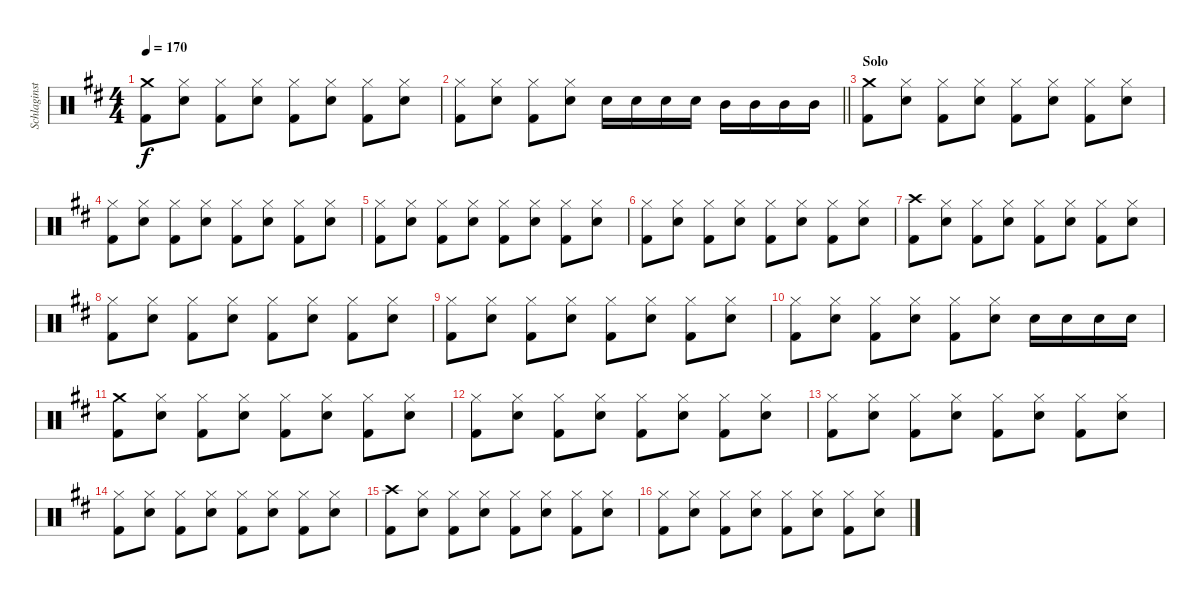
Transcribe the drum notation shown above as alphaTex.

\track ("Schlaginstrumente - Auswahl" "Schlaginst") {instrument percussion}
\staff {score}
\articulation defaults
\ts (4 4)
\tempo 170
\clef neutral
\ks d
("Crash medium (hit)" "Kick (hit) 2").8{dy f} ("Hi-Hat (closed)" "Snare (hit) 2").8 ("Hi-Hat (closed)" "Kick (hit) 2").8 ("Hi-Hat (closed)" "Snare (hit) 2").8 ("Hi-Hat (closed)" "Kick (hit) 2").8 ("Hi-Hat (closed)" "Snare (hit) 2").8 ("Hi-Hat (closed)" "Kick (hit) 2").8 ("Hi-Hat (closed)" "Snare (hit) 2").8 |
\barLineRight lightlight
("Hi-Hat (closed)" "Kick (hit) 2").8 ("Hi-Hat (closed)" "Snare (hit) 2").8 ("Hi-Hat (closed)" "Kick (hit) 2").8 ("Hi-Hat (closed)" "Snare (hit) 2").8 "Snare (hit) 2".16 "Snare (hit) 2".16 "Snare (hit) 2".16 "Snare (hit) 2".16 "Mid Tom (hit)".16 "Mid Tom (hit)".16 "Mid Tom (hit)".16 "Mid Tom (hit)".16 |
\section ("" "Solo")
("Crash medium (hit)" "Kick (hit) 2").8 ("Hi-Hat (closed)" "Snare (hit) 2").8 ("Hi-Hat (closed)" "Kick (hit) 2").8 ("Hi-Hat (closed)" "Snare (hit) 2").8 ("Hi-Hat (closed)" "Kick (hit) 2").8 ("Hi-Hat (closed)" "Snare (hit) 2").8 ("Hi-Hat (closed)" "Kick (hit) 2").8 ("Hi-Hat (closed)" "Snare (hit) 2").8 |
("Hi-Hat (closed)" "Kick (hit) 2").8 ("Hi-Hat (closed)" "Snare (hit) 2").8 ("Hi-Hat (closed)" "Kick (hit) 2").8 ("Hi-Hat (closed)" "Snare (hit) 2").8 ("Hi-Hat (closed)" "Kick (hit) 2").8 ("Hi-Hat (closed)" "Snare (hit) 2").8 ("Hi-Hat (closed)" "Kick (hit) 2").8 ("Hi-Hat (closed)" "Snare (hit) 2").8 |
("Hi-Hat (closed)" "Kick (hit) 2").8 ("Hi-Hat (closed)" "Snare (hit) 2").8 ("Hi-Hat (closed)" "Kick (hit) 2").8 ("Hi-Hat (closed)" "Snare (hit) 2").8 ("Hi-Hat (closed)" "Kick (hit) 2").8 ("Hi-Hat (closed)" "Snare (hit) 2").8 ("Hi-Hat (closed)" "Kick (hit) 2").8 ("Hi-Hat (closed)" "Snare (hit) 2").8 |
("Hi-Hat (closed)" "Kick (hit) 2").8 ("Hi-Hat (closed)" "Snare (hit) 2").8 ("Hi-Hat (closed)" "Kick (hit) 2").8 ("Hi-Hat (closed)" "Snare (hit) 2").8 ("Hi-Hat (closed)" "Kick (hit) 2").8 ("Hi-Hat (closed)" "Snare (hit) 2").8 ("Hi-Hat (closed)" "Kick (hit) 2").8 ("Hi-Hat (closed)" "Snare (hit) 2").8 |
("Crash high (hit)" "Kick (hit) 2").8 ("Hi-Hat (closed)" "Snare (hit) 2").8 ("Hi-Hat (closed)" "Kick (hit) 2").8 ("Hi-Hat (closed)" "Snare (hit) 2").8 ("Hi-Hat (closed)" "Kick (hit) 2").8 ("Hi-Hat (closed)" "Snare (hit) 2").8 ("Hi-Hat (closed)" "Kick (hit) 2").8 ("Hi-Hat (closed)" "Snare (hit) 2").8 |
("Hi-Hat (closed)" "Kick (hit) 2").8 ("Hi-Hat (closed)" "Snare (hit) 2").8 ("Hi-Hat (closed)" "Kick (hit) 2").8 ("Hi-Hat (closed)" "Snare (hit) 2").8 ("Hi-Hat (closed)" "Kick (hit) 2").8 ("Hi-Hat (closed)" "Snare (hit) 2").8 ("Hi-Hat (closed)" "Kick (hit) 2").8 ("Hi-Hat (closed)" "Snare (hit) 2").8 |
("Hi-Hat (closed)" "Kick (hit) 2").8 ("Hi-Hat (closed)" "Snare (hit) 2").8 ("Hi-Hat (closed)" "Kick (hit) 2").8 ("Hi-Hat (closed)" "Snare (hit) 2").8 ("Hi-Hat (closed)" "Kick (hit) 2").8 ("Hi-Hat (closed)" "Snare (hit) 2").8 ("Hi-Hat (closed)" "Kick (hit) 2").8 ("Hi-Hat (closed)" "Snare (hit) 2").8 |
("Hi-Hat (closed)" "Kick (hit) 2").8 ("Hi-Hat (closed)" "Snare (hit) 2").8 ("Hi-Hat (closed)" "Kick (hit) 2").8 ("Hi-Hat (closed)" "Snare (hit) 2").8 ("Hi-Hat (closed)" "Kick (hit) 2").8 ("Hi-Hat (closed)" "Snare (hit) 2").8 "Snare (hit) 2".16 "Snare (hit) 2".16 "Snare (hit) 2".16 "Snare (hit) 2".16 |
("Crash medium (hit)" "Kick (hit) 2").8 ("Hi-Hat (closed)" "Snare (hit) 2").8 ("Hi-Hat (closed)" "Kick (hit) 2").8 ("Hi-Hat (closed)" "Snare (hit) 2").8 ("Hi-Hat (closed)" "Kick (hit) 2").8 ("Hi-Hat (closed)" "Snare (hit) 2").8 ("Hi-Hat (closed)" "Kick (hit) 2").8 ("Hi-Hat (closed)" "Snare (hit) 2").8 |
("Hi-Hat (closed)" "Kick (hit) 2").8 ("Hi-Hat (closed)" "Snare (hit) 2").8 ("Hi-Hat (closed)" "Kick (hit) 2").8 ("Hi-Hat (closed)" "Snare (hit) 2").8 ("Hi-Hat (closed)" "Kick (hit) 2").8 ("Hi-Hat (closed)" "Snare (hit) 2").8 ("Hi-Hat (closed)" "Kick (hit) 2").8 ("Hi-Hat (closed)" "Snare (hit) 2").8 |
("Hi-Hat (closed)" "Kick (hit) 2").8 ("Hi-Hat (closed)" "Snare (hit) 2").8 ("Hi-Hat (closed)" "Kick (hit) 2").8 ("Hi-Hat (closed)" "Snare (hit) 2").8 ("Hi-Hat (closed)" "Kick (hit) 2").8 ("Hi-Hat (closed)" "Snare (hit) 2").8 ("Hi-Hat (closed)" "Kick (hit) 2").8 ("Hi-Hat (closed)" "Snare (hit) 2").8 |
("Hi-Hat (closed)" "Kick (hit) 2").8 ("Hi-Hat (closed)" "Snare (hit) 2").8 ("Hi-Hat (closed)" "Kick (hit) 2").8 ("Hi-Hat (closed)" "Snare (hit) 2").8 ("Hi-Hat (closed)" "Kick (hit) 2").8 ("Hi-Hat (closed)" "Snare (hit) 2").8 ("Hi-Hat (closed)" "Kick (hit) 2").8 ("Hi-Hat (closed)" "Snare (hit) 2").8 |
("Crash high (hit)" "Kick (hit) 2").8 ("Hi-Hat (closed)" "Snare (hit) 2").8 ("Hi-Hat (closed)" "Kick (hit) 2").8 ("Hi-Hat (closed)" "Snare (hit) 2").8 ("Hi-Hat (closed)" "Kick (hit) 2").8 ("Hi-Hat (closed)" "Snare (hit) 2").8 ("Hi-Hat (closed)" "Kick (hit) 2").8 ("Hi-Hat (closed)" "Snare (hit) 2").8 |
("Hi-Hat (closed)" "Kick (hit) 2").8 ("Hi-Hat (closed)" "Snare (hit) 2").8 ("Hi-Hat (closed)" "Kick (hit) 2").8 ("Hi-Hat (closed)" "Snare (hit) 2").8 ("Hi-Hat (closed)" "Kick (hit) 2").8 ("Hi-Hat (closed)" "Snare (hit) 2").8 ("Hi-Hat (closed)" "Kick (hit) 2").8 ("Hi-Hat (closed)" "Snare (hit) 2").8
